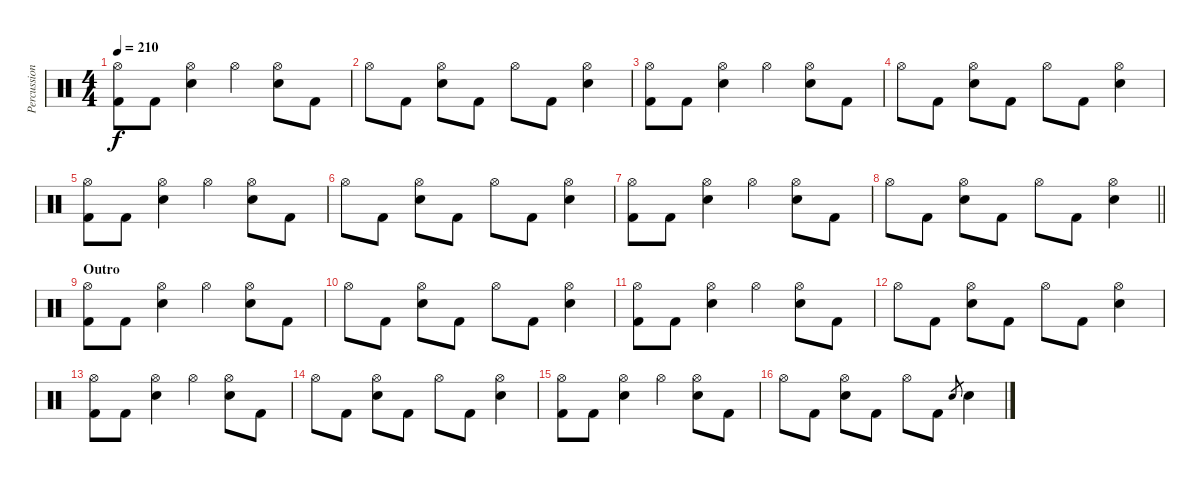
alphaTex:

\track ("Percussion" "Percussion") {instrument percussion}
\staff {score}
\articulation defaults
\ts (4 4)
\tempo 210
\clef neutral
\ks c
("Hi-Hat (open)" "Kick (hit) 2").8{dy f} "Kick (hit) 2".8 ("Hi-Hat (open)" "Electric Snare (hit)").4 "Hi-Hat (open)".4 ("Hi-Hat (open)" "Electric Snare (hit)").8 "Kick (hit) 2".8 |
"Hi-Hat (open)".8 "Kick (hit) 2".8 ("Hi-Hat (open)" "Electric Snare (hit)").8 "Kick (hit) 2".8 "Hi-Hat (open)".8 "Kick (hit) 2".8 ("Hi-Hat (open)" "Electric Snare (hit)").4 |
("Hi-Hat (open)" "Kick (hit) 2").8 "Kick (hit) 2".8 ("Hi-Hat (open)" "Electric Snare (hit)").4 "Hi-Hat (open)".4 ("Hi-Hat (open)" "Electric Snare (hit)").8 "Kick (hit) 2".8 |
"Hi-Hat (open)".8 "Kick (hit) 2".8 ("Hi-Hat (open)" "Electric Snare (hit)").8 "Kick (hit) 2".8 "Hi-Hat (open)".8 "Kick (hit) 2".8 ("Hi-Hat (open)" "Electric Snare (hit)").4 |
("Hi-Hat (open)" "Kick (hit) 2").8 "Kick (hit) 2".8 ("Hi-Hat (open)" "Electric Snare (hit)").4 "Hi-Hat (open)".4 ("Hi-Hat (open)" "Electric Snare (hit)").8 "Kick (hit) 2".8 |
"Hi-Hat (open)".8 "Kick (hit) 2".8 ("Hi-Hat (open)" "Electric Snare (hit)").8 "Kick (hit) 2".8 "Hi-Hat (open)".8 "Kick (hit) 2".8 ("Hi-Hat (open)" "Electric Snare (hit)").4 |
("Hi-Hat (open)" "Kick (hit) 2").8 "Kick (hit) 2".8 ("Hi-Hat (open)" "Electric Snare (hit)").4 "Hi-Hat (open)".4 ("Hi-Hat (open)" "Electric Snare (hit)").8 "Kick (hit) 2".8 |
\barLineRight lightlight "Hi-Hat (open)".8 "Kick (hit) 2".8
("Hi-Hat (open)" "Electric Snare (hit)").8 "Kick (hit) 2".8 "Hi-Hat (open)".8 "Kick (hit) 2".8 ("Hi-Hat (open)" "Electric Snare (hit)").4 |
\section ("" "Outro")
("Hi-Hat (open)" "Kick (hit) 2").8 "Kick (hit) 2".8 ("Hi-Hat (open)" "Electric Snare (hit)").4 "Hi-Hat (open)".4 ("Hi-Hat (open)" "Electric Snare (hit)").8 "Kick (hit) 2".8 |
"Hi-Hat (open)".8 "Kick (hit) 2".8 ("Hi-Hat (open)" "Electric Snare (hit)").8 "Kick (hit) 2".8 "Hi-Hat (open)".8 "Kick (hit) 2".8 ("Hi-Hat (open)" "Electric Snare (hit)").4 |
("Hi-Hat (open)" "Kick (hit) 2").8 "Kick (hit) 2".8 ("Hi-Hat (open)" "Electric Snare (hit)").4 "Hi-Hat (open)".4 ("Hi-Hat (open)" "Electric Snare (hit)").8 "Kick (hit) 2".8 |
"Hi-Hat (open)".8 "Kick (hit) 2".8 ("Hi-Hat (open)" "Electric Snare (hit)").8 "Kick (hit) 2".8 "Hi-Hat (open)".8 "Kick (hit) 2".8 ("Hi-Hat (open)" "Electric Snare (hit)").4 |
("Hi-Hat (open)" "Kick (hit) 2").8 "Kick (hit) 2".8 ("Hi-Hat (open)" "Electric Snare (hit)").4 "Hi-Hat (open)".4 ("Hi-Hat (open)" "Electric Snare (hit)").8 "Kick (hit) 2".8 |
"Hi-Hat (open)".8 "Kick (hit) 2".8 ("Hi-Hat (open)" "Electric Snare (hit)").8 "Kick (hit) 2".8 "Hi-Hat (open)".8 "Kick (hit) 2".8 ("Hi-Hat (open)" "Electric Snare (hit)").4 |
("Hi-Hat (open)" "Kick (hit) 2").8 "Kick (hit) 2".8 ("Hi-Hat (open)" "Electric Snare (hit)").4 "Hi-Hat (open)".4 ("Hi-Hat (open)" "Electric Snare (hit)").8 "Kick (hit) 2".8 |
"Hi-Hat (open)".8 "Kick (hit) 2".8 ("Hi-Hat (open)" "Electric Snare (hit)").8 "Kick (hit) 2".8 "Hi-Hat (open)".8 "Kick (hit) 2".8 "Electric Snare (hit)".8{gr} "Electric Snare (hit)".4
